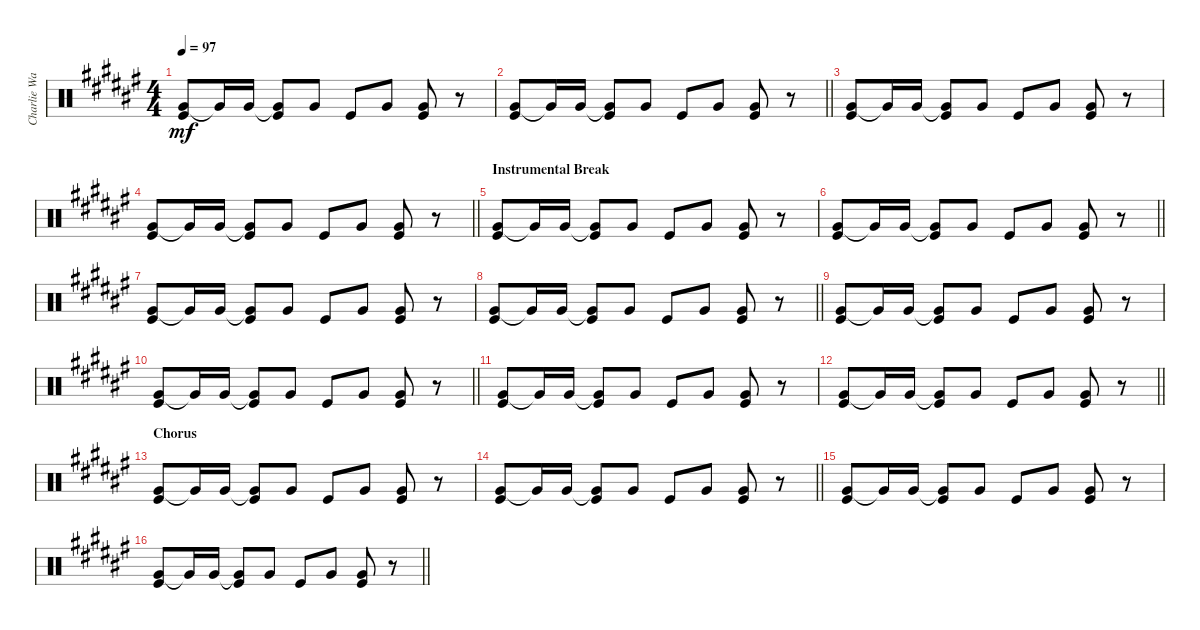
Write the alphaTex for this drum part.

\track ("Charlie Watts" "Charlie Wa") {instrument percussion}
\staff {score}
\articulation defaults
\ts (4 4)
\tempo 97
\clef neutral
\ks f#
("Very Low Tom (hit)" "Kick (hit)").8{dy mf} "Very Low Tom (hit)"{t}.16 "Very Low Tom (hit)".16 ("Very Low Tom (hit)"{t} "Kick (hit)").8 "Very Low Tom (hit)".8 "Kick (hit)".8 "Very Low Tom (hit)".8 ("Very Low Tom (hit)" "Kick (hit)").8 r.8 |
\barLineRight lightlight
("Very Low Tom (hit)" "Kick (hit)").8 "Very Low Tom (hit)"{t}.16 "Very Low Tom (hit)".16 ("Very Low Tom (hit)"{t} "Kick (hit)").8 "Very Low Tom (hit)".8 "Kick (hit)".8 "Very Low Tom (hit)".8 ("Very Low Tom (hit)" "Kick (hit)").8 r.8 |
("Very Low Tom (hit)" "Kick (hit)").8 "Very Low Tom (hit)"{t}.16 "Very Low Tom (hit)".16 ("Very Low Tom (hit)"{t} "Kick (hit)").8 "Very Low Tom (hit)".8 "Kick (hit)".8 "Very Low Tom (hit)".8 ("Very Low Tom (hit)" "Kick (hit)").8 r.8 |
\barLineRight lightlight
("Very Low Tom (hit)" "Kick (hit)").8 "Very Low Tom (hit)"{t}.16 "Very Low Tom (hit)".16 ("Very Low Tom (hit)"{t} "Kick (hit)").8 "Very Low Tom (hit)".8 "Kick (hit)".8 "Very Low Tom (hit)".8 ("Very Low Tom (hit)" "Kick (hit)").8 r.8 |
\section ("" "Instrumental Break")
("Very Low Tom (hit)" "Kick (hit)").8 "Very Low Tom (hit)"{t}.16 "Very Low Tom (hit)".16 ("Very Low Tom (hit)"{t} "Kick (hit)").8 "Very Low Tom (hit)".8 "Kick (hit)".8 "Very Low Tom (hit)".8 ("Very Low Tom (hit)" "Kick (hit)").8 r.8 |
\barLineRight lightlight
("Very Low Tom (hit)" "Kick (hit)").8 "Very Low Tom (hit)"{t}.16 "Very Low Tom (hit)".16 ("Very Low Tom (hit)"{t} "Kick (hit)").8 "Very Low Tom (hit)".8 "Kick (hit)".8 "Very Low Tom (hit)".8 ("Very Low Tom (hit)" "Kick (hit)").8 r.8 |
("Very Low Tom (hit)" "Kick (hit)").8 "Very Low Tom (hit)"{t}.16 "Very Low Tom (hit)".16 ("Very Low Tom (hit)"{t} "Kick (hit)").8 "Very Low Tom (hit)".8 "Kick (hit)".8 "Very Low Tom (hit)".8 ("Very Low Tom (hit)" "Kick (hit)").8 r.8 |
\barLineRight lightlight
("Very Low Tom (hit)" "Kick (hit)").8 "Very Low Tom (hit)"{t}.16 "Very Low Tom (hit)".16 ("Very Low Tom (hit)"{t} "Kick (hit)").8 "Very Low Tom (hit)".8 "Kick (hit)".8 "Very Low Tom (hit)".8 ("Very Low Tom (hit)" "Kick (hit)").8 r.8 |
("Very Low Tom (hit)" "Kick (hit)").8 "Very Low Tom (hit)"{t}.16 "Very Low Tom (hit)".16 ("Very Low Tom (hit)"{t} "Kick (hit)").8 "Very Low Tom (hit)".8 "Kick (hit)".8 "Very Low Tom (hit)".8 ("Very Low Tom (hit)" "Kick (hit)").8 r.8 |
\barLineRight lightlight
("Very Low Tom (hit)" "Kick (hit)").8 "Very Low Tom (hit)"{t}.16 "Very Low Tom (hit)".16 ("Very Low Tom (hit)"{t} "Kick (hit)").8 "Very Low Tom (hit)".8 "Kick (hit)".8 "Very Low Tom (hit)".8 ("Very Low Tom (hit)" "Kick (hit)").8 r.8 |
("Very Low Tom (hit)" "Kick (hit)").8 "Very Low Tom (hit)"{t}.16 "Very Low Tom (hit)".16 ("Very Low Tom (hit)"{t} "Kick (hit)").8 "Very Low Tom (hit)".8 "Kick (hit)".8 "Very Low Tom (hit)".8 ("Very Low Tom (hit)" "Kick (hit)").8 r.8 |
\barLineRight lightlight
("Very Low Tom (hit)" "Kick (hit)").8 "Very Low Tom (hit)"{t}.16 "Very Low Tom (hit)".16 ("Very Low Tom (hit)"{t} "Kick (hit)").8 "Very Low Tom (hit)".8 "Kick (hit)".8 "Very Low Tom (hit)".8 ("Very Low Tom (hit)" "Kick (hit)").8 r.8 |
\section ("" "Chorus")
("Very Low Tom (hit)" "Kick (hit)").8 "Very Low Tom (hit)"{t}.16 "Very Low Tom (hit)".16 ("Very Low Tom (hit)"{t} "Kick (hit)").8 "Very Low Tom (hit)".8 "Kick (hit)".8 "Very Low Tom (hit)".8 ("Very Low Tom (hit)" "Kick (hit)").8 r.8 |
\barLineRight lightlight
("Very Low Tom (hit)" "Kick (hit)").8 "Very Low Tom (hit)"{t}.16 "Very Low Tom (hit)".16 ("Very Low Tom (hit)"{t} "Kick (hit)").8 "Very Low Tom (hit)".8 "Kick (hit)".8 "Very Low Tom (hit)".8 ("Very Low Tom (hit)" "Kick (hit)").8 r.8 |
("Very Low Tom (hit)" "Kick (hit)").8 "Very Low Tom (hit)"{t}.16 "Very Low Tom (hit)".16 ("Very Low Tom (hit)"{t} "Kick (hit)").8 "Very Low Tom (hit)".8 "Kick (hit)".8 "Very Low Tom (hit)".8 ("Very Low Tom (hit)" "Kick (hit)").8 r.8 |
\barLineRight lightlight
("Very Low Tom (hit)" "Kick (hit)").8 "Very Low Tom (hit)"{t}.16 "Very Low Tom (hit)".16 ("Very Low Tom (hit)"{t} "Kick (hit)").8 "Very Low Tom (hit)".8 "Kick (hit)".8 "Very Low Tom (hit)".8 ("Very Low Tom (hit)" "Kick (hit)").8 r.8
